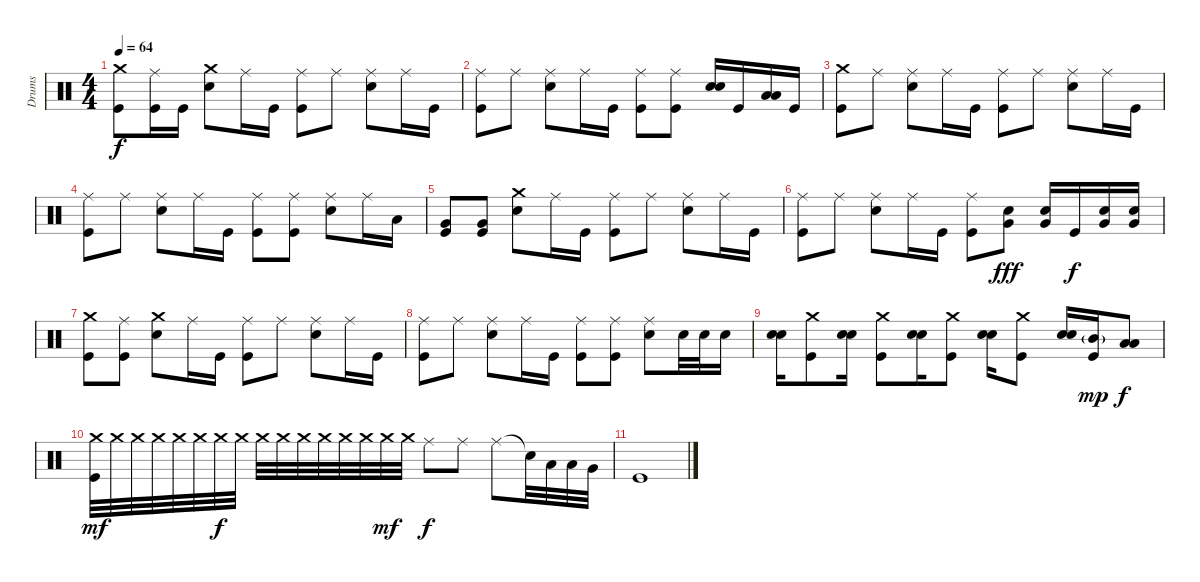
\track ("Drums" "Drums") {instrument percussion}
\staff {score}
\articulation defaults
\ts (4 4)
\tempo 64
\clef neutral
\ks c
("Crash medium (hit)" "Kick (hit)").8{dy f} ("Ride (middle)" "Kick (hit)").16 "Kick (hit)".16 ("Crash medium (hit)" "Snare (hit) 2").8 "Ride (middle)".16 "Kick (hit)".16 ("Ride (middle)" "Kick (hit)").8 "Ride (middle)".8 ("Ride (middle)" "Snare (hit) 2").8 "Ride (middle)".16 "Kick (hit)".16 |
("Ride (middle)" "Kick (hit)").8 "Ride (middle)".8 ("Ride (middle)" "Snare (hit) 2").8 "Ride (middle)".16 "Kick (hit)".16 ("Ride (middle)" "Kick (hit)").8 ("Ride (middle)" "Kick (hit)").8 ("Snare (hit) 2" "Snare (hit) 2").16 "Kick (hit)".16 ("Low Tom (hit)" "Low Tom (hit)").16 "Kick (hit)".16 |
("Crash medium (hit)" "Kick (hit)").8 "Ride (middle)".8 ("Ride (middle)" "Snare (hit) 2").8 "Ride (middle)".16 "Kick (hit)".16 ("Ride (middle)" "Kick (hit)").8 "Ride (middle)".8 ("Ride (middle)" "Snare (hit) 2").8 "Ride (middle)".16 "Kick (hit)".16 |
("Ride (middle)" "Kick (hit)").8 "Ride (middle)".8 ("Ride (middle)" "Snare (hit) 2").8 "Ride (middle)".16 "Kick (hit)".16 ("Ride (middle)" "Kick (hit)").8 ("Ride (middle)" "Kick (hit)").8 ("Ride (middle)" "Snare (hit) 2").8 "Ride (middle)".16 "Low Tom (hit)".16 |
("Very Low Tom (hit)" "Kick (hit)").8 ("Very Low Tom (hit)" "Kick (hit)").8 ("Crash medium (hit)" "Snare (hit) 2").8 "Ride (middle)".16 "Kick (hit)".16 ("Ride (middle)" "Kick (hit)").8 "Ride (middle)".8 ("Ride (middle)" "Snare (hit) 2").8 "Ride (middle)".16 "Kick (hit)".16 |
("Ride (middle)" "Kick (hit)").8 "Ride (middle)".8 ("Ride (middle)" "Snare (hit) 2").8 "Ride (middle)".16 "Kick (hit)".16 ("Ride (middle)" "Kick (hit)").8 ("Snare (hit) 2" "Very Low Tom (hit)").8{dy fff} ("Snare (hit) 2" "Very Low Tom (hit)").16 "Kick (hit)".16{dy f} ("Snare (hit) 2" "Very Low Tom (hit)").16 ("Snare (hit) 2" "Very Low Tom (hit)").16 |
("Crash medium (hit)" "Kick (hit)").8 ("Ride (middle)" "Kick (hit)").8 ("Crash medium (hit)" "Snare (hit) 2").8 "Ride (middle)".16 "Kick (hit)".16 ("Ride (middle)" "Kick (hit)").8 "Ride (middle)".8 ("Ride (middle)" "Snare (hit) 2").8 "Ride (middle)".16 "Kick (hit)".16 |
("Ride (middle)" "Kick (hit)").8 "Ride (middle)".8 ("Ride (middle)" "Snare (hit) 2").8 "Ride (middle)".16 "Kick (hit)".16 ("Ride (middle)" "Kick (hit)").8 ("Ride (middle)" "Kick (hit)").8 ("Ride (middle)" "Snare (hit) 2").8 "Snare (hit) 2".32 "Snare (hit) 2".32 "Snare (hit) 2".16 |
("Snare (hit) 2" "Snare (hit) 2").16 ("Crash medium (hit)" "Kick (hit)").8 ("Snare (hit) 2" "Snare (hit) 2").16 ("Crash medium (hit)" "Kick (hit)").8 ("Snare (hit) 2" "Snare (hit) 2").16 ("Crash medium (hit)" "Kick (hit)").8 ("Snare (hit) 2" "Snare (hit) 2").16 ("Crash medium (hit)" "Kick (hit)").8 ("Snare (hit) 2" "Snare (hit) 2").16 ("Mid Tom (hit)"{g} "Kick (hit)").16{dy mp} ("Low Tom (hit)" "Low Tom (hit)").8{dy f} |
("Crash medium (hit)" "Kick (hit)").32{dy mf} "Crash medium (hit)".32 "Crash medium (hit)".32 "Crash medium (hit)".32 "Crash medium (hit)".32 "Crash medium (hit)".32 "Crash medium (hit)".32{dy f} "Crash medium (hit)".32 "Crash medium (hit)".32 "Crash medium (hit)".32 "Crash medium (hit)".32 "Crash medium (hit)".32 "Crash medium (hit)".32 "Crash medium (hit)".32 "Crash medium (hit)".32{dy mf} "Crash medium (hit)".32 "Ride (middle)".8{dy f} "Ride (middle)".8 "Ride (middle)".8 "Snare (hit)"{t}.32 "Low Tom (hit)".32 "Low Tom (hit)".32 "Very Low Tom (hit)".32 |
"Kick (hit)".1
